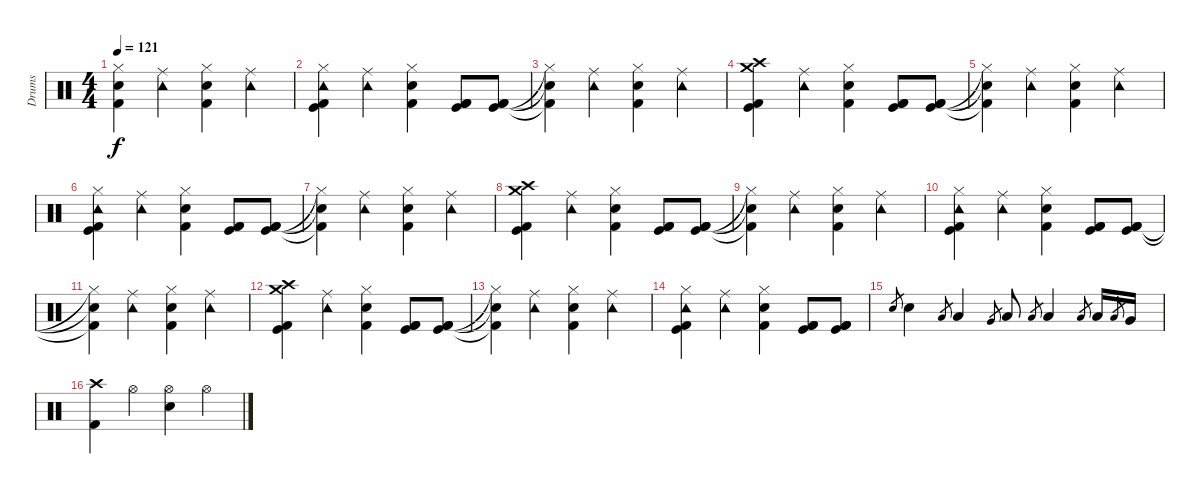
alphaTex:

\track ("Drums" "Drums") {instrument percussion}
\staff {score}
\articulation defaults
\ts (4 4)
\tempo 121
\clef neutral
\ks c
("Hi-Hat (closed)"{t} "Kick (hit) 2"{t} "Snare (hit)"{t}).4{dy f} ("Ride (middle)" "Tambourine (hit)").4 ("Hi-Hat (closed)" "Snare (hit) 2" "Kick (hit) 2").4 ("Ride (middle)" "Tambourine (hit)").4 |
("Tambourine (hit)" "Kick (hit)" "Hi-Hat (closed)" "Kick (hit) 2").4 ("Tambourine (hit)" "Ride (middle)").4 ("Hi-Hat (closed)" "Snare (hit) 2" "Kick (hit) 2").4 ("Kick (hit) 2" "Kick (hit)" "Kick (hit) 2").8 ("Kick (hit) 2" "Kick (hit)" "Kick (hit) 2").8 |
("Hi-Hat (closed)"{t} "Kick (hit) 2"{t} "Snare (hit)"{t}).4 ("Ride (middle)" "Tambourine (hit)").4 ("Hi-Hat (closed)" "Snare (hit) 2" "Kick (hit) 2").4 ("Ride (middle)" "Tambourine (hit)").4 |
("Crash high (hit)" "Kick (hit)" "Crash medium (hit)" "Kick (hit) 2").4 ("Tambourine (hit)" "Ride (middle)").4 ("Hi-Hat (closed)" "Snare (hit) 2" "Kick (hit) 2").4 ("Kick (hit) 2" "Kick (hit)" "Kick (hit) 2").8 ("Kick (hit) 2" "Kick (hit)" "Kick (hit) 2").8 |
("Hi-Hat (closed)"{t} "Kick (hit) 2"{t} "Snare (hit)"{t}).4 ("Ride (middle)" "Tambourine (hit)").4 ("Hi-Hat (closed)" "Snare (hit) 2" "Kick (hit) 2").4 ("Ride (middle)" "Tambourine (hit)").4 |
("Tambourine (hit)" "Kick (hit)" "Hi-Hat (closed)" "Kick (hit) 2").4 ("Tambourine (hit)" "Ride (middle)").4 ("Hi-Hat (closed)" "Snare (hit) 2" "Kick (hit) 2").4 ("Kick (hit) 2" "Kick (hit)" "Kick (hit) 2").8 ("Kick (hit) 2" "Kick (hit)" "Kick (hit) 2").8 |
("Hi-Hat (closed)"{t} "Kick (hit) 2"{t} "Snare (hit)"{t}).4 ("Ride (middle)" "Tambourine (hit)").4 ("Hi-Hat (closed)" "Snare (hit) 2" "Kick (hit) 2").4 ("Ride (middle)" "Tambourine (hit)").4 |
("Crash high (hit)" "Kick (hit)" "Crash medium (hit)" "Kick (hit) 2").4 ("Tambourine (hit)" "Ride (middle)").4 ("Hi-Hat (closed)" "Snare (hit) 2" "Kick (hit) 2").4 ("Kick (hit) 2" "Kick (hit)" "Kick (hit) 2").8 ("Kick (hit) 2" "Kick (hit)" "Kick (hit) 2").8 |
("Hi-Hat (closed)"{t} "Kick (hit) 2"{t} "Snare (hit)"{t}).4 ("Ride (middle)" "Tambourine (hit)").4 ("Hi-Hat (closed)" "Snare (hit) 2" "Kick (hit) 2").4 ("Ride (middle)" "Tambourine (hit)").4 |
("Tambourine (hit)" "Kick (hit)" "Hi-Hat (closed)" "Kick (hit) 2").4 ("Tambourine (hit)" "Ride (middle)").4 ("Hi-Hat (closed)" "Snare (hit) 2" "Kick (hit) 2").4 ("Kick (hit) 2" "Kick (hit)" "Kick (hit) 2").8 ("Kick (hit) 2" "Kick (hit)" "Kick (hit) 2").8 |
("Hi-Hat (closed)"{t} "Kick (hit) 2"{t} "Snare (hit)"{t}).4 ("Ride (middle)" "Tambourine (hit)").4 ("Hi-Hat (closed)" "Snare (hit) 2" "Kick (hit) 2").4 ("Ride (middle)" "Tambourine (hit)").4 |
("Crash high (hit)" "Kick (hit)" "Crash medium (hit)" "Kick (hit) 2").4 ("Tambourine (hit)" "Ride (middle)").4 ("Hi-Hat (closed)" "Snare (hit) 2" "Kick (hit) 2").4 ("Kick (hit) 2" "Kick (hit)" "Kick (hit) 2").8 ("Kick (hit) 2" "Kick (hit)" "Kick (hit) 2").8 |
("Hi-Hat (closed)"{t} "Kick (hit) 2"{t} "Snare (hit)"{t}).4 ("Ride (middle)" "Tambourine (hit)").4 ("Hi-Hat (closed)" "Snare (hit) 2" "Kick (hit) 2").4 ("Ride (middle)" "Tambourine (hit)").4 |
("Tambourine (hit)" "Kick (hit)" "Hi-Hat (closed)" "Kick (hit) 2").4 ("Tambourine (hit)" "Ride (middle)").4 ("Hi-Hat (closed)" "Snare (hit) 2" "Kick (hit) 2").4 ("Kick (hit) 2" "Kick (hit)" "Kick (hit) 2").8 ("Kick (hit) 2" "Kick (hit)" "Kick (hit) 2").8 |
"Snare (hit) 2".8{gr} "Snare (hit) 2".4 "Low Tom (hit)".8{gr} "Low Tom (hit)".4 "Very Low Tom (hit)".8{gr} "Low Tom (hit)".8 "Low Tom (hit)".8{gr} "Low Tom (hit)".4 "Low Tom (hit)".8{gr} "Low Tom (hit)".16 "Low Tom (hit)".8{gr} "Very Low Tom (hit)".16 |
("Crash high (hit)" "Kick (hit) 2").4 "Hi-Hat (open)".4 ("Hi-Hat (open)" "Electric Snare (hit)").4 "Hi-Hat (open)".4
